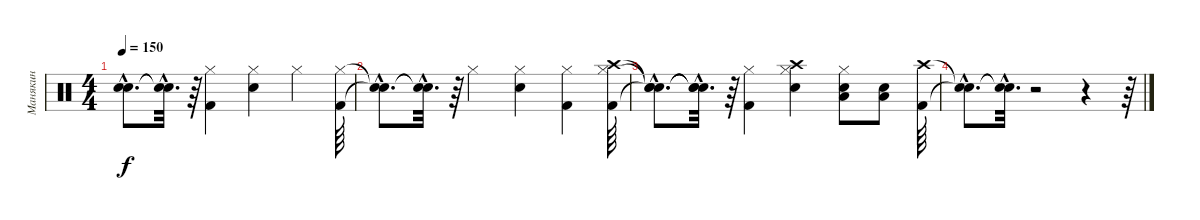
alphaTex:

\track ("Манякин" "Манякин") {instrument percussion}
\staff {score}
\articulation defaults
\ts (4 4)
\tempo 150
\clef neutral
\ks c
("Snare (hit)"{hac t} "Snare (hit)"{hac t}).8{d dy f} ("Snare (hit)"{hac t} "Snare (hit)"{hac t}).32{d} r.64 ("Hi-Hat (closed)" "Kick (hit) 2").4 ("Hi-Hat (closed)" "Snare (hit) 2").4 "Hi-Hat (closed)".4 ("Hi-Hat (closed)" "Kick (hit) 2").64 |
("Snare (hit)"{hac t} "Snare (hit)"{hac t}).8{d} ("Snare (hit)"{hac t} "Snare (hit)"{hac t}).32{d} r.64 "Hi-Hat (closed)".4 ("Hi-Hat (closed)" "Snare (hit) 2").4 ("Hi-Hat (closed)" "Kick (hit) 2").4 ("Crash high (hit)" "Hi-Hat (closed)" "Kick (hit) 2").64 |
("Snare (hit)"{hac t} "Snare (hit)"{hac t} "Snare (hit)"{hac t}).8{d} ("Snare (hit)"{hac t} "Snare (hit)"{hac t} "Snare (hit)"{hac t}).32{d} r.64 ("Hi-Hat (closed)" "Kick (hit) 2").4 ("Crash high (hit)" "Hi-Hat (closed)" "Snare (hit) 2").4 ("Low Floor Tom (hit)" "Snare (hit) 2" "Hi-Hat (closed)").8 ("Low Floor Tom (hit)" "Snare (hit) 2").8 ("Kick (hit) 2" "Crash high (hit)").64 |
("Snare (hit)"{hac t} "Snare (hit)"{hac t}).8{d} ("Snare (hit)"{hac t} "Snare (hit)"{hac t}).32{d} r.2 r.4 r.64
